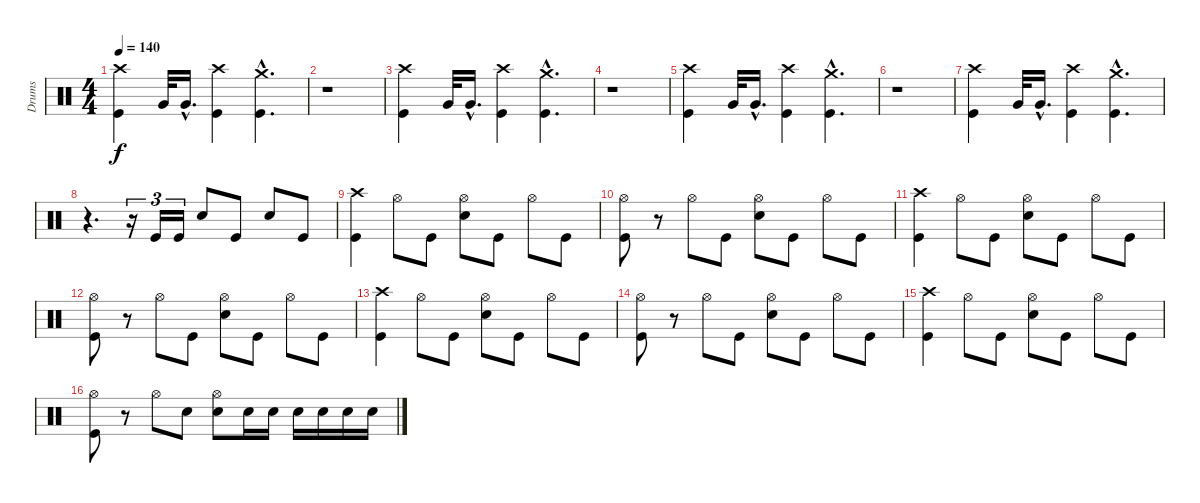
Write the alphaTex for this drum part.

\track ("Drums" "Drums") {instrument percussion}
\staff {score}
\articulation defaults
\ts (4 4)
\tempo 140
\clef neutral
\ks c
("Crash high (hit)" "Kick (hit)").4{dy f} "Very Low Tom (hit)".32 "Very Low Tom (hit)"{hac}.16{d} ("Crash high (hit)" "Kick (hit)").4 ("Crash medium (hit)"{hac} "Kick (hit)"{hac}).4{d} |
r.1 |
("Crash high (hit)" "Kick (hit)").4 "Very Low Tom (hit)".32 "Very Low Tom (hit)"{hac}.16{d} ("Crash high (hit)" "Kick (hit)").4 ("Crash medium (hit)"{hac} "Kick (hit)"{hac}).4{d} |
r.1 |
("Crash high (hit)" "Kick (hit)").4 "Very Low Tom (hit)".32 "Very Low Tom (hit)"{hac}.16{d} ("Crash high (hit)" "Kick (hit)").4 ("Crash medium (hit)"{hac} "Kick (hit)"{hac}).4{d} |
r.1 |
("Crash high (hit)" "Kick (hit)").4 "Very Low Tom (hit)".32 "Very Low Tom (hit)"{hac}.16{d} ("Crash high (hit)" "Kick (hit)").4 ("Crash medium (hit)"{hac} "Kick (hit)"{hac}).4{d} |
r.4{d} r.16{tu (3 2)} "Kick (hit)".16{tu (3 2)} "Kick (hit)".16{tu (3 2)} "Electric Snare (hit)".8 "Kick (hit)".8 "Electric Snare (hit)".8 "Kick (hit)".8 |
("Crash high (hit)" "Kick (hit)").4 "Hi-Hat (open)".8 "Kick (hit)".8 ("Hi-Hat (open)" "Electric Snare (hit)").8 "Kick (hit)".8 "Hi-Hat (open)".8 "Kick (hit)".8 |
("Hi-Hat (open)" "Kick (hit)").8 r.8 "Hi-Hat (open)".8 "Kick (hit)".8 ("Hi-Hat (open)" "Electric Snare (hit)").8 "Kick (hit)".8 "Hi-Hat (open)".8 "Kick (hit)".8 |
("Crash high (hit)" "Kick (hit)").4 "Hi-Hat (open)".8 "Kick (hit)".8 ("Hi-Hat (open)" "Electric Snare (hit)").8 "Kick (hit)".8 "Hi-Hat (open)".8 "Kick (hit)".8 |
("Hi-Hat (open)" "Kick (hit)").8 r.8 "Hi-Hat (open)".8 "Kick (hit)".8 ("Hi-Hat (open)" "Electric Snare (hit)").8 "Kick (hit)".8 "Hi-Hat (open)".8 "Kick (hit)".8 |
("Crash high (hit)" "Kick (hit)").4 "Hi-Hat (open)".8 "Kick (hit)".8 ("Hi-Hat (open)" "Electric Snare (hit)").8 "Kick (hit)".8 "Hi-Hat (open)".8 "Kick (hit)".8 |
("Hi-Hat (open)" "Kick (hit)").8 r.8 "Hi-Hat (open)".8 "Kick (hit)".8 ("Hi-Hat (open)" "Electric Snare (hit)").8 "Kick (hit)".8 "Hi-Hat (open)".8 "Kick (hit)".8 |
("Crash high (hit)" "Kick (hit)").4 "Hi-Hat (open)".8 "Kick (hit)".8 ("Hi-Hat (open)" "Electric Snare (hit)").8 "Kick (hit)".8 "Hi-Hat (open)".8 "Kick (hit)".8 |
("Hi-Hat (open)" "Kick (hit)").8 r.8 "Hi-Hat (open)".8 "Electric Snare (hit)".8 ("Hi-Hat (open)" "Electric Snare (hit)").8 "Electric Snare (hit)".16 "Electric Snare (hit)".16 "Electric Snare (hit)".16 "Electric Snare (hit)".16 "Electric Snare (hit)".16 "Electric Snare (hit)".16
